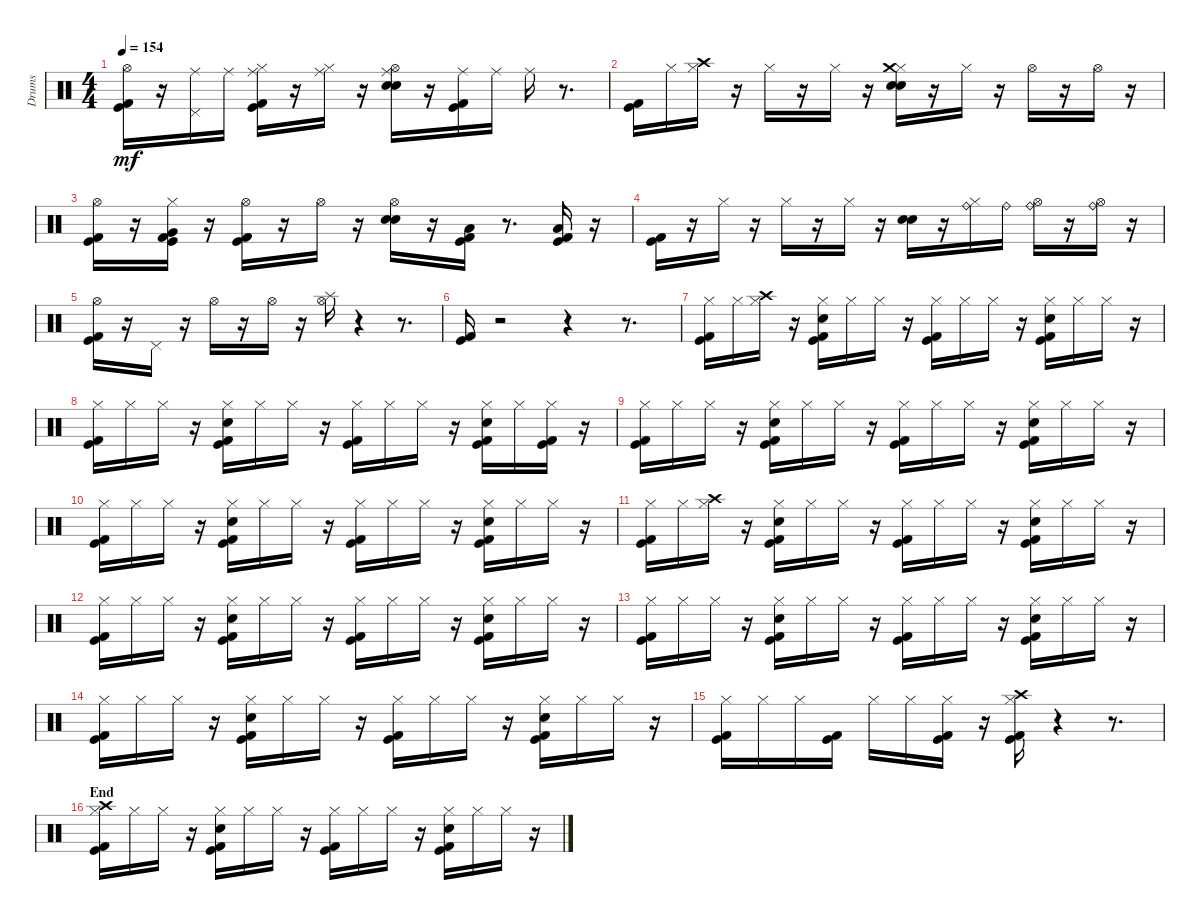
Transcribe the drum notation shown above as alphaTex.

\track ("Drums" "Drums") {instrument percussion}
\staff {score}
\articulation defaults
\ts (4 4)
\tempo 154
\clef neutral
\ks c
("Kick (hit)" "Kick (hit) 2" "Hi-Hat (open)").16{dy mf} r.16 ("Pedal Hi-Hat (hit)" "Ride (middle)").16 "Ride (middle)".16 ("Kick (hit)" "Kick (hit) 2" "Hi-Hat (closed)" "Ride (middle)").16 r.16 ("Hi-Hat (closed)" "Ride (middle)").16 r.16 ("Snare (hit) 2" "Electric Snare (hit)" "Hi-Hat (open)" "Ride (middle)").16 r.16 ("Kick (hit)" "Kick (hit) 2" "Ride (middle)").16 "Ride (middle)".16 "Ride (middle)".16 r.8{d} |
("Kick (hit)" "Kick (hit) 2").16 "Hi-Hat (closed)".16 ("Hi-Hat (closed)" "Crash high (hit)").16 r.16 "Hi-Hat (closed)".16 r.16 "Hi-Hat (closed)".16 r.16 ("Snare (hit) 2" "Electric Snare (hit)" "Hi-Hat (closed)" "Crash medium (hit)").16 r.16 "Hi-Hat (closed)".16 r.16 "Hi-Hat (open)".16 r.16 "Hi-Hat (open)".16 r.16 |
("Kick (hit)" "Kick (hit) 2" "Hi-Hat (open)").16 r.16 ("Kick (hit)" "Kick (hit) 2" "Hi-Hat (closed)" "Very Low Tom (hit)").16 r.16 ("Kick (hit)" "Kick (hit) 2" "Hi-Hat (open)").16 r.16 "Hi-Hat (open)".16 r.16 ("Snare (hit) 2" "Electric Snare (hit)" "Hi-Hat (open)").16 r.16 ("Kick (hit)" "Kick (hit) 2" "Low Floor Tom (hit)").16 r.8{d} ("Kick (hit)" "Kick (hit) 2" "Low Floor Tom (hit)").16 r.16 |
("Kick (hit)" "Kick (hit) 2").16 r.16 "Hi-Hat (closed)".16 r.16 "Hi-Hat (closed)".16 r.16 "Hi-Hat (closed)".16 r.16 ("Snare (hit) 2" "Electric Snare (hit)").16 r.16 ("Hi-Hat (closed)" "Ride (bell)").16 "Ride (bell)".16 ("Hi-Hat (open)" "Ride (bell)").16 r.16 ("Hi-Hat (open)" "Ride (bell)").16 r.16 |
("Kick (hit)" "Kick (hit) 2" "Hi-Hat (open)").16 r.16 "Pedal Hi-Hat (hit)".16 r.16 "Hi-Hat (open)".16 r.16 "Hi-Hat (open)".16 r.16 ("Hi-Hat (open)" "Splash (hit)").16 r.4 r.8{d} |
("Kick (hit)" "Kick (hit) 2").16 r.2 r.4 r.8{d} |
("Kick (hit)" "Kick (hit) 2" "Hi-Hat (closed)").16 "Hi-Hat (closed)".16 ("Hi-Hat (closed)" "Crash high (hit)").16 r.16 ("Kick (hit)" "Kick (hit) 2" "Electric Snare (hit)" "Hi-Hat (closed)").16 "Hi-Hat (closed)".16 "Hi-Hat (closed)".16 r.16 ("Kick (hit)" "Kick (hit) 2" "Hi-Hat (closed)").16 "Hi-Hat (closed)".16 "Hi-Hat (closed)".16 r.16 ("Kick (hit)" "Kick (hit) 2" "Electric Snare (hit)" "Hi-Hat (closed)").16 "Hi-Hat (closed)".16 "Hi-Hat (closed)".16 r.16 |
("Kick (hit)" "Kick (hit) 2" "Hi-Hat (closed)").16 "Hi-Hat (closed)".16 "Hi-Hat (closed)".16 r.16 ("Kick (hit)" "Kick (hit) 2" "Electric Snare (hit)" "Hi-Hat (closed)").16 "Hi-Hat (closed)".16 "Hi-Hat (closed)".16 r.16 ("Kick (hit)" "Kick (hit) 2" "Hi-Hat (closed)").16 "Hi-Hat (closed)".16 "Hi-Hat (closed)".16 r.16 ("Kick (hit)" "Kick (hit) 2" "Electric Snare (hit)" "Hi-Hat (closed)").16 "Hi-Hat (closed)".16 ("Kick (hit)" "Kick (hit) 2" "Hi-Hat (closed)").16 r.16 |
("Kick (hit)" "Kick (hit) 2" "Hi-Hat (closed)").16 "Hi-Hat (closed)".16 "Hi-Hat (closed)".16 r.16 ("Kick (hit)" "Kick (hit) 2" "Electric Snare (hit)" "Hi-Hat (closed)").16 "Hi-Hat (closed)".16 "Hi-Hat (closed)".16 r.16 ("Kick (hit)" "Kick (hit) 2" "Hi-Hat (closed)").16 "Hi-Hat (closed)".16 "Hi-Hat (closed)".16 r.16 ("Kick (hit)" "Kick (hit) 2" "Electric Snare (hit)" "Hi-Hat (closed)").16 "Hi-Hat (closed)".16 "Hi-Hat (closed)".16 r.16 |
("Kick (hit)" "Kick (hit) 2" "Hi-Hat (closed)").16 "Hi-Hat (closed)".16 "Hi-Hat (closed)".16 r.16 ("Kick (hit)" "Kick (hit) 2" "Electric Snare (hit)" "Hi-Hat (closed)").16 "Hi-Hat (closed)".16 "Hi-Hat (closed)".16 r.16 ("Kick (hit)" "Kick (hit) 2" "Hi-Hat (closed)").16 "Hi-Hat (closed)".16 "Hi-Hat (closed)".16 r.16 ("Kick (hit)" "Kick (hit) 2" "Electric Snare (hit)" "Hi-Hat (closed)").16 "Hi-Hat (closed)".16 "Hi-Hat (closed)".16 r.16 |
("Kick (hit)" "Kick (hit) 2" "Hi-Hat (closed)").16 "Hi-Hat (closed)".16 ("Hi-Hat (closed)" "Crash high (hit)").16 r.16 ("Kick (hit)" "Kick (hit) 2" "Electric Snare (hit)" "Hi-Hat (closed)").16 "Hi-Hat (closed)".16 "Hi-Hat (closed)".16 r.16 ("Kick (hit)" "Kick (hit) 2" "Hi-Hat (closed)").16 "Hi-Hat (closed)".16 "Hi-Hat (closed)".16 r.16 ("Kick (hit)" "Kick (hit) 2" "Electric Snare (hit)" "Hi-Hat (closed)").16 "Hi-Hat (closed)".16 "Hi-Hat (closed)".16 r.16 |
("Kick (hit)" "Kick (hit) 2" "Hi-Hat (closed)").16 "Hi-Hat (closed)".16 "Hi-Hat (closed)".16 r.16 ("Kick (hit)" "Kick (hit) 2" "Electric Snare (hit)" "Hi-Hat (closed)").16 "Hi-Hat (closed)".16 "Hi-Hat (closed)".16 r.16 ("Kick (hit)" "Kick (hit) 2" "Hi-Hat (closed)").16 "Hi-Hat (closed)".16 "Hi-Hat (closed)".16 r.16 ("Kick (hit)" "Kick (hit) 2" "Electric Snare (hit)" "Hi-Hat (closed)").16 "Hi-Hat (closed)".16 "Hi-Hat (closed)".16 r.16 |
("Kick (hit)" "Kick (hit) 2" "Hi-Hat (closed)").16 "Hi-Hat (closed)".16 "Hi-Hat (closed)".16 r.16 ("Kick (hit)" "Kick (hit) 2" "Electric Snare (hit)" "Hi-Hat (closed)").16 "Hi-Hat (closed)".16 "Hi-Hat (closed)".16 r.16 ("Kick (hit)" "Kick (hit) 2" "Hi-Hat (closed)").16 "Hi-Hat (closed)".16 "Hi-Hat (closed)".16 r.16 ("Kick (hit)" "Kick (hit) 2" "Electric Snare (hit)" "Hi-Hat (closed)").16 "Hi-Hat (closed)".16 "Hi-Hat (closed)".16 r.16 |
("Kick (hit)" "Kick (hit) 2" "Hi-Hat (closed)").16 "Hi-Hat (closed)".16 "Hi-Hat (closed)".16 r.16 ("Kick (hit)" "Kick (hit) 2" "Electric Snare (hit)" "Hi-Hat (closed)").16 "Hi-Hat (closed)".16 "Hi-Hat (closed)".16 r.16 ("Kick (hit)" "Kick (hit) 2" "Hi-Hat (closed)").16 "Hi-Hat (closed)".16 "Hi-Hat (closed)".16 r.16 ("Kick (hit)" "Kick (hit) 2" "Electric Snare (hit)" "Hi-Hat (closed)").16 "Hi-Hat (closed)".16 "Hi-Hat (closed)".16 r.16 |
("Kick (hit)" "Kick (hit) 2" "Hi-Hat (closed)").16 "Hi-Hat (closed)".16 "Hi-Hat (closed)".16 ("Kick (hit)" "Kick (hit) 2").16 "Hi-Hat (closed)".16 "Hi-Hat (closed)".16 ("Kick (hit)" "Kick (hit) 2" "Hi-Hat (closed)").16 r.16 ("Kick (hit)" "Kick (hit) 2" "Hi-Hat (closed)" "Crash high (hit)").16 r.4 r.8{d} |
\section ("" "End")
("Kick (hit)" "Kick (hit) 2" "Hi-Hat (closed)" "Crash high (hit)").16 "Hi-Hat (closed)".16 "Hi-Hat (closed)".16 r.16 ("Kick (hit)" "Kick (hit) 2" "Electric Snare (hit)" "Hi-Hat (closed)").16 "Hi-Hat (closed)".16 "Hi-Hat (closed)".16 r.16 ("Kick (hit)" "Kick (hit) 2" "Hi-Hat (closed)").16 "Hi-Hat (closed)".16 "Hi-Hat (closed)".16 r.16 ("Kick (hit)" "Kick (hit) 2" "Electric Snare (hit)" "Hi-Hat (closed)").16 "Hi-Hat (closed)".16 "Hi-Hat (closed)".16 r.16
